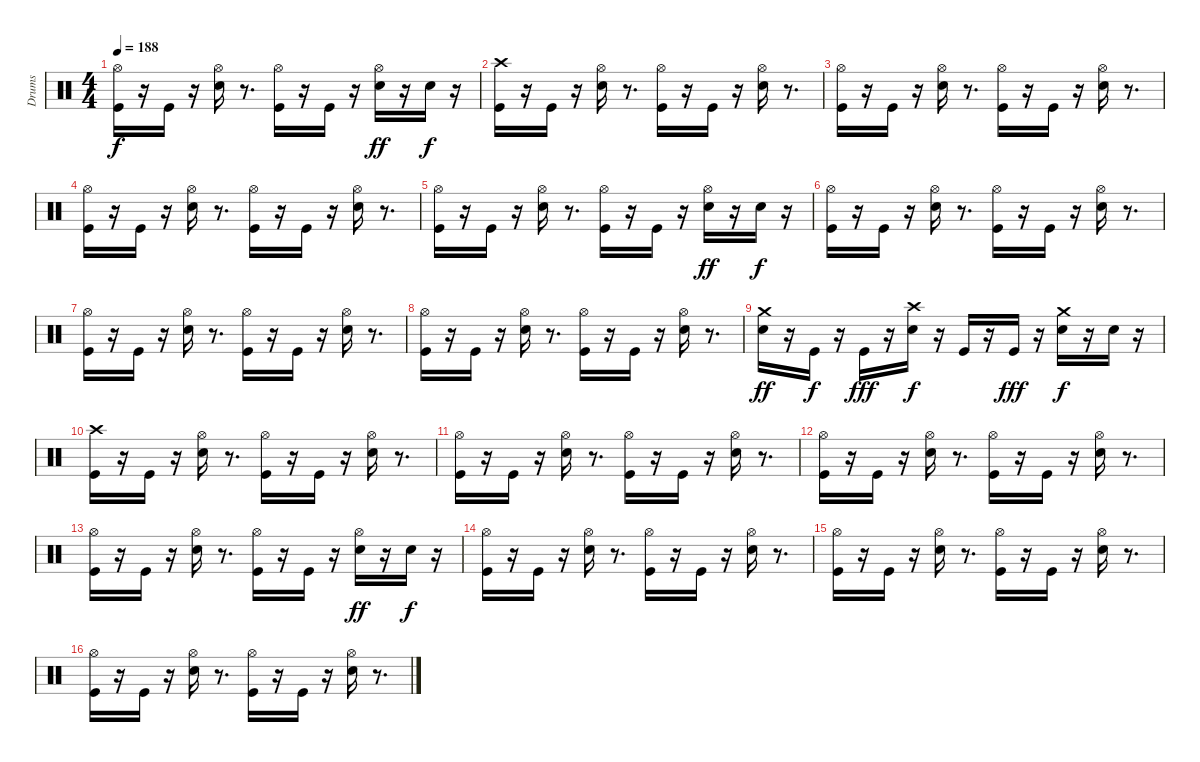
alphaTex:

\track ("Drums" "Drums") {instrument percussion}
\staff {score}
\articulation defaults
\ts (4 4)
\tempo 188
\clef neutral
\ks c
("Hi-Hat (open)" "Kick (hit)").16{dy f} r.16 "Kick (hit)".16 r.16 ("Hi-Hat (open)" "Snare (hit) 2").16 r.8{d} ("Hi-Hat (open)" "Kick (hit)").16 r.16 "Kick (hit)".16 r.16 ("Snare (hit) 2" "Hi-Hat (open)").16{dy ff} r.16 "Snare (hit) 2".16{dy f} r.16 |
("Crash high (hit)" "Kick (hit)").16 r.16 "Kick (hit)".16 r.16 ("Hi-Hat (open)" "Snare (hit) 2").16 r.8{d} ("Hi-Hat (open)" "Kick (hit)").16 r.16 "Kick (hit)".16 r.16 ("Hi-Hat (open)" "Snare (hit) 2").16 r.8{d} |
("Hi-Hat (open)" "Kick (hit)").16 r.16 "Kick (hit)".16 r.16 ("Hi-Hat (open)" "Snare (hit) 2").16 r.8{d} ("Hi-Hat (open)" "Kick (hit)").16 r.16 "Kick (hit)".16 r.16 ("Hi-Hat (open)" "Snare (hit) 2").16 r.8{d} |
("Hi-Hat (open)" "Kick (hit)").16 r.16 "Kick (hit)".16 r.16 ("Hi-Hat (open)" "Snare (hit) 2").16 r.8{d} ("Hi-Hat (open)" "Kick (hit)").16 r.16 "Kick (hit)".16 r.16 ("Hi-Hat (open)" "Snare (hit) 2").16 r.8{d} |
("Hi-Hat (open)" "Kick (hit)").16 r.16 "Kick (hit)".16 r.16 ("Hi-Hat (open)" "Snare (hit) 2").16 r.8{d} ("Hi-Hat (open)" "Kick (hit)").16 r.16 "Kick (hit)".16 r.16 ("Snare (hit) 2" "Hi-Hat (open)").16{dy ff} r.16 "Snare (hit) 2".16{dy f} r.16 |
("Hi-Hat (open)" "Kick (hit)").16 r.16 "Kick (hit)".16 r.16 ("Hi-Hat (open)" "Snare (hit) 2").16 r.8{d} ("Hi-Hat (open)" "Kick (hit)").16 r.16 "Kick (hit)".16 r.16 ("Hi-Hat (open)" "Snare (hit) 2").16 r.8{d} |
("Hi-Hat (open)" "Kick (hit)").16 r.16 "Kick (hit)".16 r.16 ("Hi-Hat (open)" "Snare (hit) 2").16 r.8{d} ("Hi-Hat (open)" "Kick (hit)").16 r.16 "Kick (hit)".16 r.16 ("Hi-Hat (open)" "Snare (hit) 2").16 r.8{d} |
("Hi-Hat (open)" "Kick (hit)").16 r.16 "Kick (hit)".16 r.16 ("Hi-Hat (open)" "Snare (hit) 2").16 r.8{d} ("Hi-Hat (open)" "Kick (hit)").16 r.16 "Kick (hit)".16 r.16 ("Hi-Hat (open)" "Snare (hit) 2").16 r.8{d} |
("Snare (hit) 2" "Crash medium (hit)").16{dy ff} r.16 "Kick (hit)".16{dy f} r.16 "Kick (hit)".16{dy fff} r.16 ("Crash high (hit)" "Snare (hit) 2").16{dy f} r.16 "Kick (hit)".16 r.16 "Kick (hit)".16{dy fff} r.16 ("Crash medium (hit)" "Snare (hit) 2").16{dy f} r.16 "Snare (hit) 2".16 r.16 |
("Crash high (hit)" "Kick (hit)").16 r.16 "Kick (hit)".16 r.16 ("Hi-Hat (open)" "Snare (hit) 2").16 r.8{d} ("Hi-Hat (open)" "Kick (hit)").16 r.16 "Kick (hit)".16 r.16 ("Hi-Hat (open)" "Snare (hit) 2").16 r.8{d} |
("Hi-Hat (open)" "Kick (hit)").16 r.16 "Kick (hit)".16 r.16 ("Hi-Hat (open)" "Snare (hit) 2").16 r.8{d} ("Hi-Hat (open)" "Kick (hit)").16 r.16 "Kick (hit)".16 r.16 ("Hi-Hat (open)" "Snare (hit) 2").16 r.8{d} |
("Hi-Hat (open)" "Kick (hit)").16 r.16 "Kick (hit)".16 r.16 ("Hi-Hat (open)" "Snare (hit) 2").16 r.8{d} ("Hi-Hat (open)" "Kick (hit)").16 r.16 "Kick (hit)".16 r.16 ("Hi-Hat (open)" "Snare (hit) 2").16 r.8{d} |
("Hi-Hat (open)" "Kick (hit)").16 r.16 "Kick (hit)".16 r.16 ("Hi-Hat (open)" "Snare (hit) 2").16 r.8{d} ("Hi-Hat (open)" "Kick (hit)").16 r.16 "Kick (hit)".16 r.16 ("Snare (hit) 2" "Hi-Hat (open)").16{dy ff} r.16 "Snare (hit) 2".16{dy f} r.16 |
("Hi-Hat (open)" "Kick (hit)").16 r.16 "Kick (hit)".16 r.16 ("Hi-Hat (open)" "Snare (hit) 2").16 r.8{d} ("Hi-Hat (open)" "Kick (hit)").16 r.16 "Kick (hit)".16 r.16 ("Hi-Hat (open)" "Snare (hit) 2").16 r.8{d} |
("Hi-Hat (open)" "Kick (hit)").16 r.16 "Kick (hit)".16 r.16 ("Hi-Hat (open)" "Snare (hit) 2").16 r.8{d} ("Hi-Hat (open)" "Kick (hit)").16 r.16 "Kick (hit)".16 r.16 ("Hi-Hat (open)" "Snare (hit) 2").16 r.8{d} |
("Hi-Hat (open)" "Kick (hit)").16 r.16 "Kick (hit)".16 r.16 ("Hi-Hat (open)" "Snare (hit) 2").16 r.8{d} ("Hi-Hat (open)" "Kick (hit)").16 r.16 "Kick (hit)".16 r.16 ("Hi-Hat (open)" "Snare (hit) 2").16 r.8{d}
